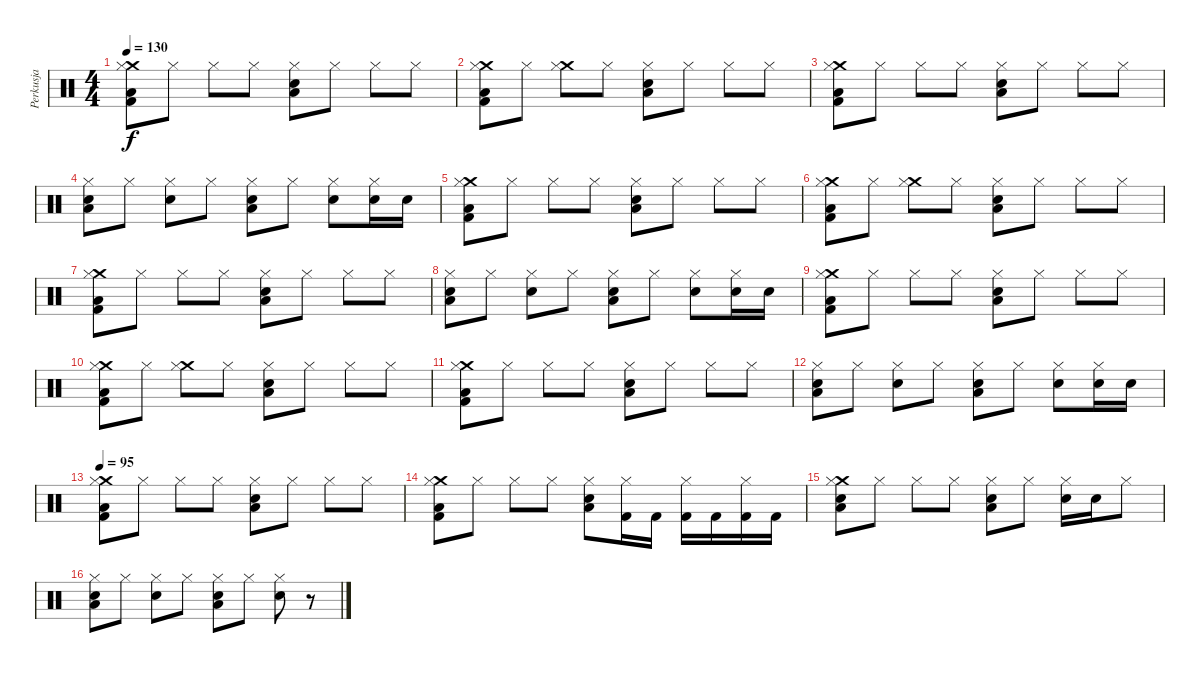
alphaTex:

\track ("Perkusja" "Perkusja") {instrument percussion}
\staff {score}
\articulation defaults
\ts (4 4)
\tempo 130
\clef neutral
\ks c
("Crash medium (hit)" "Kick (hit) 2" "Hi-Hat (closed)" "Low Tom (hit)").8{dy f} "Hi-Hat (closed)".8 "Hi-Hat (closed)".8 "Hi-Hat (closed)".8 ("Snare (hit) 2" "Hi-Hat (closed)" "Low Tom (hit)").8 "Hi-Hat (closed)".8 "Hi-Hat (closed)".8 "Hi-Hat (closed)".8 |
("Crash medium (hit)" "Kick (hit) 2" "Hi-Hat (closed)" "Low Tom (hit)").8 "Hi-Hat (closed)".8 ("Crash medium (hit)" "Hi-Hat (closed)").8 "Hi-Hat (closed)".8 ("Snare (hit) 2" "Hi-Hat (closed)" "Low Tom (hit)").8 "Hi-Hat (closed)".8 "Hi-Hat (closed)".8 "Hi-Hat (closed)".8 |
("Crash medium (hit)" "Kick (hit) 2" "Hi-Hat (closed)" "Low Tom (hit)").8 "Hi-Hat (closed)".8 "Hi-Hat (closed)".8 "Hi-Hat (closed)".8 ("Snare (hit) 2" "Hi-Hat (closed)" "Low Tom (hit)").8 "Hi-Hat (closed)".8 "Hi-Hat (closed)".8 "Hi-Hat (closed)".8 |
("Snare (hit) 2" "Hi-Hat (closed)" "Low Tom (hit)").8 "Hi-Hat (closed)".8 ("Snare (hit) 2" "Hi-Hat (closed)").8 "Hi-Hat (closed)".8 ("Snare (hit) 2" "Hi-Hat (closed)" "Low Tom (hit)").8 "Hi-Hat (closed)".8 ("Snare (hit) 2" "Hi-Hat (closed)").8 ("Snare (hit) 2" "Hi-Hat (closed)").16 "Snare (hit) 2".16 |
("Crash medium (hit)" "Kick (hit) 2" "Hi-Hat (closed)" "Low Tom (hit)").8 "Hi-Hat (closed)".8 "Hi-Hat (closed)".8 "Hi-Hat (closed)".8 ("Snare (hit) 2" "Hi-Hat (closed)" "Low Tom (hit)").8 "Hi-Hat (closed)".8 "Hi-Hat (closed)".8 "Hi-Hat (closed)".8 |
("Crash medium (hit)" "Kick (hit) 2" "Hi-Hat (closed)" "Low Tom (hit)").8 "Hi-Hat (closed)".8 ("Crash medium (hit)" "Hi-Hat (closed)").8 "Hi-Hat (closed)".8 ("Snare (hit) 2" "Hi-Hat (closed)" "Low Tom (hit)").8 "Hi-Hat (closed)".8 "Hi-Hat (closed)".8 "Hi-Hat (closed)".8 |
("Crash medium (hit)" "Kick (hit) 2" "Hi-Hat (closed)" "Low Tom (hit)").8 "Hi-Hat (closed)".8 "Hi-Hat (closed)".8 "Hi-Hat (closed)".8 ("Snare (hit) 2" "Hi-Hat (closed)" "Low Tom (hit)").8 "Hi-Hat (closed)".8 "Hi-Hat (closed)".8 "Hi-Hat (closed)".8 |
("Snare (hit) 2" "Hi-Hat (closed)" "Low Tom (hit)").8 "Hi-Hat (closed)".8 ("Snare (hit) 2" "Hi-Hat (closed)").8 "Hi-Hat (closed)".8 ("Snare (hit) 2" "Hi-Hat (closed)" "Low Tom (hit)").8 "Hi-Hat (closed)".8 ("Snare (hit) 2" "Hi-Hat (closed)").8 ("Snare (hit) 2" "Hi-Hat (closed)").16 "Snare (hit) 2".16 |
("Crash medium (hit)" "Kick (hit) 2" "Hi-Hat (closed)" "Low Tom (hit)").8 "Hi-Hat (closed)".8 "Hi-Hat (closed)".8 "Hi-Hat (closed)".8 ("Snare (hit) 2" "Hi-Hat (closed)" "Low Tom (hit)").8 "Hi-Hat (closed)".8 "Hi-Hat (closed)".8 "Hi-Hat (closed)".8 |
("Crash medium (hit)" "Kick (hit) 2" "Hi-Hat (closed)" "Low Tom (hit)").8 "Hi-Hat (closed)".8 ("Crash medium (hit)" "Hi-Hat (closed)").8 "Hi-Hat (closed)".8 ("Snare (hit) 2" "Hi-Hat (closed)" "Low Tom (hit)").8 "Hi-Hat (closed)".8 "Hi-Hat (closed)".8 "Hi-Hat (closed)".8 |
("Crash medium (hit)" "Kick (hit) 2" "Hi-Hat (closed)" "Low Tom (hit)").8 "Hi-Hat (closed)".8 "Hi-Hat (closed)".8 "Hi-Hat (closed)".8 ("Snare (hit) 2" "Hi-Hat (closed)" "Low Tom (hit)").8 "Hi-Hat (closed)".8 "Hi-Hat (closed)".8 "Hi-Hat (closed)".8 |
("Snare (hit) 2" "Hi-Hat (closed)" "Low Tom (hit)").8 "Hi-Hat (closed)".8 ("Snare (hit) 2" "Hi-Hat (closed)").8 "Hi-Hat (closed)".8 ("Snare (hit) 2" "Hi-Hat (closed)" "Low Tom (hit)").8 "Hi-Hat (closed)".8 ("Snare (hit) 2" "Hi-Hat (closed)").8 ("Snare (hit) 2" "Hi-Hat (closed)").16 "Snare (hit) 2".16 |
\tempo 95
("Crash medium (hit)" "Kick (hit) 2" "Hi-Hat (closed)" "Low Tom (hit)").8 "Hi-Hat (closed)".8 "Hi-Hat (closed)".8 "Hi-Hat (closed)".8 ("Snare (hit) 2" "Hi-Hat (closed)" "Low Tom (hit)").8 "Hi-Hat (closed)".8 "Hi-Hat (closed)".8 "Hi-Hat (closed)".8 |
("Crash medium (hit)" "Kick (hit) 2" "Hi-Hat (closed)" "Low Tom (hit)").8 "Hi-Hat (closed)".8 "Hi-Hat (closed)".8 "Hi-Hat (closed)".8 ("Snare (hit) 2" "Hi-Hat (closed)" "Low Tom (hit)").8 ("Kick (hit) 2" "Hi-Hat (closed)").16 "Kick (hit) 2".16 ("Kick (hit) 2" "Hi-Hat (closed)").16 "Kick (hit) 2".16 ("Kick (hit) 2" "Hi-Hat (closed)").16 "Kick (hit) 2".16 |
("Crash medium (hit)" "Snare (hit) 2" "Hi-Hat (closed)" "Low Tom (hit)").8 "Hi-Hat (closed)".8 "Hi-Hat (closed)".8 "Hi-Hat (closed)".8 ("Snare (hit) 2" "Hi-Hat (closed)" "Low Tom (hit)").8 "Hi-Hat (closed)".8 ("Snare (hit) 2" "Hi-Hat (closed)").16 "Snare (hit) 2".16 "Hi-Hat (closed)".8 |
("Snare (hit) 2" "Hi-Hat (closed)" "Low Tom (hit)").8 "Hi-Hat (closed)".8 ("Snare (hit) 2" "Hi-Hat (closed)").8 "Hi-Hat (closed)".8 ("Snare (hit) 2" "Hi-Hat (closed)" "Low Tom (hit)").8 "Hi-Hat (closed)".8 ("Snare (hit) 2" "Hi-Hat (closed)").8 r.8
